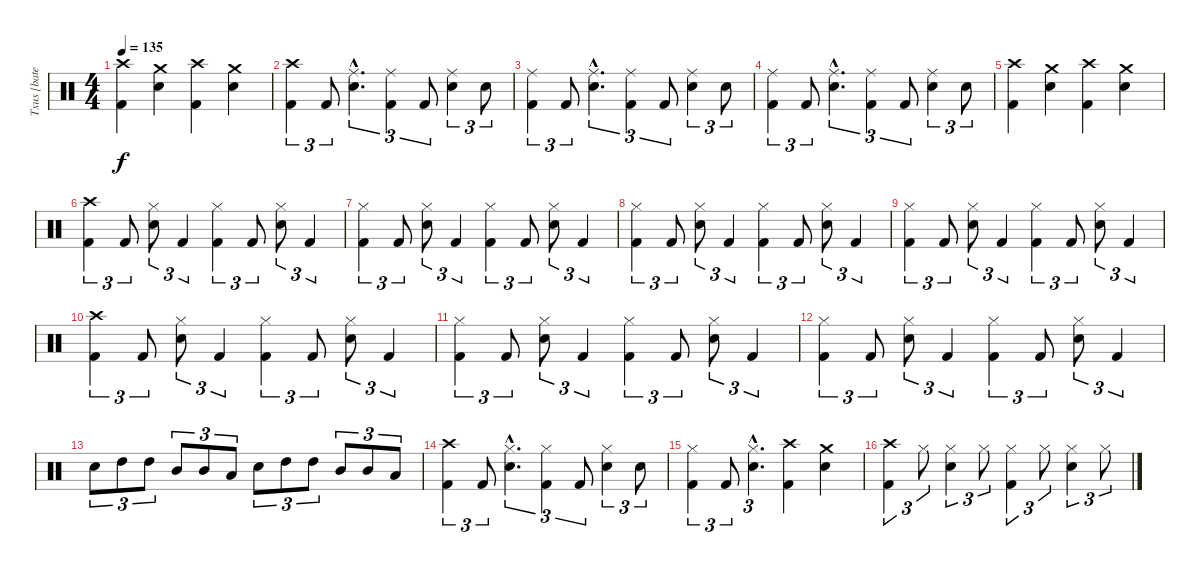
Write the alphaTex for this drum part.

\track ("Txus [bateria]" "Txus [bate") {instrument percussion}
\staff {score}
\articulation defaults
\ts (4 4)
\tempo 135
\clef neutral
\ks c
("Crash high (hit)" "Kick (hit) 2").4{dy f} ("Crash medium (hit)" "Snare (hit) 2").4 ("Crash high (hit)" "Kick (hit) 2").4 ("Crash medium (hit)" "Snare (hit) 2").4 |
("Crash high (hit)" "Kick (hit) 2").4{tu (3 2)} "Kick (hit) 2".8{tu (3 2)} ("Ride (middle)"{hac} "Snare (hit) 2"{hac}).4{d tu (3 2)} ("Ride (middle)" "Kick (hit) 2").4{tu (3 2)} "Kick (hit) 2".8{tu (3 2)} ("Ride (middle)" "Snare (hit) 2").4{tu (3 2)} "Snare (hit) 2".8{tu (3 2)} |
("Ride (middle)" "Kick (hit) 2").4{tu (3 2)} "Kick (hit) 2".8{tu (3 2)} ("Ride (middle)"{hac} "Snare (hit) 2"{hac}).4{d tu (3 2)} ("Ride (middle)" "Kick (hit) 2").4{tu (3 2)} "Kick (hit) 2".8{tu (3 2)} ("Ride (middle)" "Snare (hit) 2").4{tu (3 2)} "Snare (hit) 2".8{tu (3 2)} |
("Ride (middle)" "Kick (hit) 2").4{tu (3 2)} "Kick (hit) 2".8{tu (3 2)} ("Ride (middle)"{hac} "Snare (hit) 2"{hac}).4{d tu (3 2)} ("Ride (middle)" "Kick (hit) 2").4{tu (3 2)} "Kick (hit) 2".8{tu (3 2)} ("Ride (middle)" "Snare (hit) 2").4{tu (3 2)} "Snare (hit) 2".8{tu (3 2)} |
("Crash high (hit)" "Kick (hit) 2").4 ("Crash medium (hit)" "Snare (hit) 2").4 ("Crash high (hit)" "Kick (hit) 2").4 ("Crash medium (hit)" "Snare (hit) 2").4 |
("Crash high (hit)" "Kick (hit) 2").4{tu (3 2)} "Kick (hit) 2".8{tu (3 2)} ("Hi-Hat (closed)" "Snare (hit) 2").8{tu (3 2)} "Kick (hit) 2".4{tu (3 2)} ("Hi-Hat (closed)" "Kick (hit) 2").4{tu (3 2)} "Kick (hit) 2".8{tu (3 2)} ("Hi-Hat (closed)" "Snare (hit) 2").8{tu (3 2)} "Kick (hit) 2".4{tu (3 2)} |
("Hi-Hat (closed)" "Kick (hit) 2").4{tu (3 2)} "Kick (hit) 2".8{tu (3 2)} ("Hi-Hat (closed)" "Snare (hit) 2").8{tu (3 2)} "Kick (hit) 2".4{tu (3 2)} ("Hi-Hat (closed)" "Kick (hit) 2").4{tu (3 2)} "Kick (hit) 2".8{tu (3 2)} ("Hi-Hat (closed)" "Snare (hit) 2").8{tu (3 2)} "Kick (hit) 2".4{tu (3 2)} |
("Hi-Hat (closed)" "Kick (hit) 2").4{tu (3 2)} "Kick (hit) 2".8{tu (3 2)} ("Hi-Hat (closed)" "Snare (hit) 2").8{tu (3 2)} "Kick (hit) 2".4{tu (3 2)} ("Hi-Hat (closed)" "Kick (hit) 2").4{tu (3 2)} "Kick (hit) 2".8{tu (3 2)} ("Hi-Hat (closed)" "Snare (hit) 2").8{tu (3 2)} "Kick (hit) 2".4{tu (3 2)} |
("Hi-Hat (closed)" "Kick (hit) 2").4{tu (3 2)} "Kick (hit) 2".8{tu (3 2)} ("Hi-Hat (closed)" "Snare (hit) 2").8{tu (3 2)} "Kick (hit) 2".4{tu (3 2)} ("Hi-Hat (closed)" "Kick (hit) 2").4{tu (3 2)} "Kick (hit) 2".8{tu (3 2)} ("Hi-Hat (closed)" "Snare (hit) 2").8{tu (3 2)} "Kick (hit) 2".4{tu (3 2)} |
("Crash high (hit)" "Kick (hit) 2").4{tu (3 2)} "Kick (hit) 2".8{tu (3 2)} ("Hi-Hat (closed)" "Snare (hit) 2").8{tu (3 2)} "Kick (hit) 2".4{tu (3 2)} ("Hi-Hat (closed)" "Kick (hit) 2").4{tu (3 2)} "Kick (hit) 2".8{tu (3 2)} ("Hi-Hat (closed)" "Snare (hit) 2").8{tu (3 2)} "Kick (hit) 2".4{tu (3 2)} |
("Hi-Hat (closed)" "Kick (hit) 2").4{tu (3 2)} "Kick (hit) 2".8{tu (3 2)} ("Hi-Hat (closed)" "Snare (hit) 2").8{tu (3 2)} "Kick (hit) 2".4{tu (3 2)} ("Hi-Hat (closed)" "Kick (hit) 2").4{tu (3 2)} "Kick (hit) 2".8{tu (3 2)} ("Hi-Hat (closed)" "Snare (hit) 2").8{tu (3 2)} "Kick (hit) 2".4{tu (3 2)} |
("Hi-Hat (closed)" "Kick (hit) 2").4{tu (3 2)} "Kick (hit) 2".8{tu (3 2)} ("Hi-Hat (closed)" "Snare (hit) 2").8{tu (3 2)} "Kick (hit) 2".4{tu (3 2)} ("Hi-Hat (closed)" "Kick (hit) 2").4{tu (3 2)} "Kick (hit) 2".8{tu (3 2)} ("Hi-Hat (closed)" "Snare (hit) 2").8{tu (3 2)} "Kick (hit) 2".4{tu (3 2)} |
"Snare (hit) 2".8{tu (3 2)} "High Tom (hit)".8{tu (3 2)} "High Tom (hit)".8{tu (3 2)} "Mid Tom (hit)".8{tu (3 2)} "Mid Tom (hit)".8{tu (3 2)} "Low Tom (hit)".8{tu (3 2)} "Snare (hit) 2".8{tu (3 2)} "High Tom (hit)".8{tu (3 2)} "High Tom (hit)".8{tu (3 2)} "Mid Tom (hit)".8{tu (3 2)} "Mid Tom (hit)".8{tu (3 2)} "Low Tom (hit)".8{tu (3 2)} |
("Crash high (hit)" "Kick (hit) 2").4{tu (3 2)} "Kick (hit) 2".8{tu (3 2)} ("Hi-Hat (closed)"{hac} "Snare (hit) 2"{hac}).4{d tu (3 2)} ("Hi-Hat (closed)" "Kick (hit) 2").4{tu (3 2)} "Kick (hit) 2".8{tu (3 2)} ("Hi-Hat (closed)" "Snare (hit) 2").4{tu (3 2)} "Snare (hit) 2".8{tu (3 2)} |
("Hi-Hat (closed)" "Kick (hit) 2").4{tu (3 2)} "Kick (hit) 2".8{tu (3 2)} ("Hi-Hat (closed)"{hac} "Snare (hit) 2"{hac}).4{d tu (3 2)} ("Crash high (hit)" "Kick (hit) 2").4 ("Crash medium (hit)" "Snare (hit) 2").4 |
("Crash high (hit)" "Kick (hit) 2").4{tu (3 2)} "Hi-Hat (closed)".8{tu (3 2)} ("Hi-Hat (closed)" "Snare (hit) 2").4{tu (3 2)} "Hi-Hat (closed)".8{tu (3 2)} ("Hi-Hat (closed)" "Kick (hit) 2").4{tu (3 2)} "Hi-Hat (closed)".8{tu (3 2)} ("Hi-Hat (closed)" "Snare (hit) 2").4{tu (3 2)} "Hi-Hat (closed)".8{tu (3 2)}
